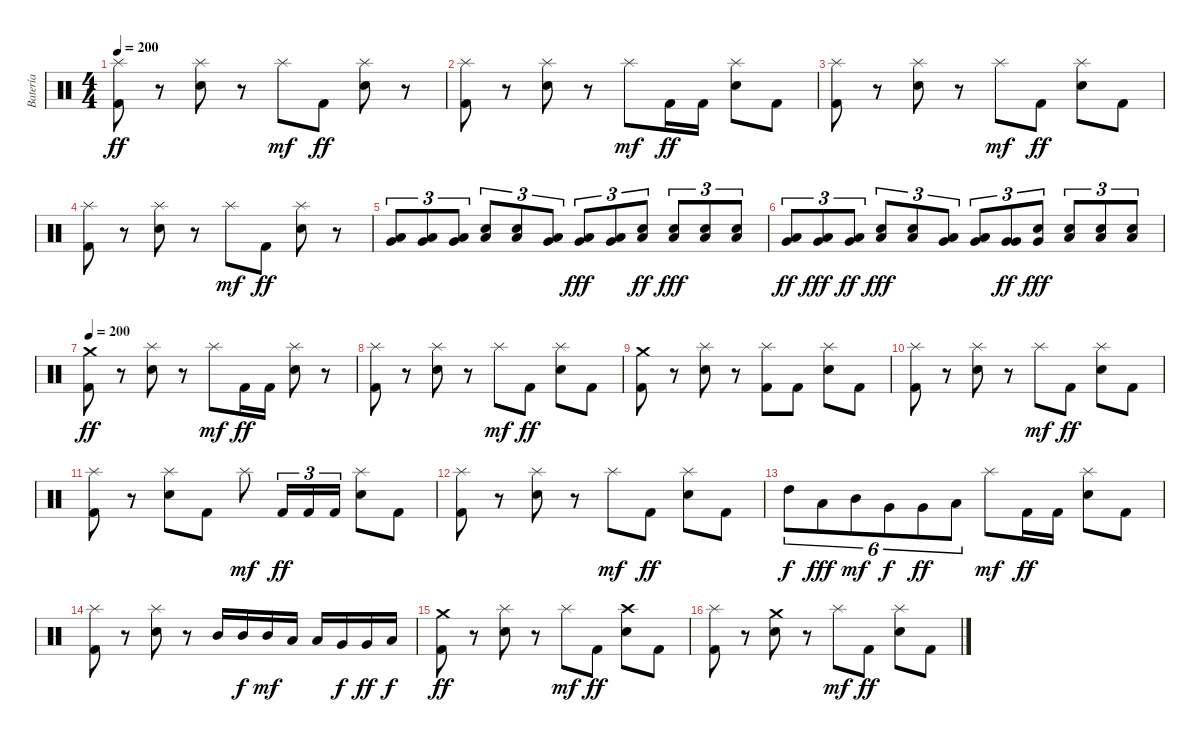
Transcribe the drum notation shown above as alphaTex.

\track ("Batería" "Batería") {instrument percussion}
\staff {score}
\articulation defaults
\ts (4 4)
\tempo 200
\clef neutral
\ks c
("Splash (hit)" "Kick (hit) 2").8{dy ff} r.8 ("Splash (hit)" "Electric Snare (hit)").8 r.8 "Splash (hit)".8{dy mf} "Kick (hit) 2".8{dy ff} ("Splash (hit)" "Electric Snare (hit)").8 r.8 |
("Splash (hit)" "Kick (hit) 2").8 r.8 ("Splash (hit)" "Electric Snare (hit)").8 r.8 "Splash (hit)".8{dy mf} "Kick (hit) 2".16{dy ff} "Kick (hit) 2".16 ("Splash (hit)" "Electric Snare (hit)").8 "Kick (hit) 2".8 |
("Splash (hit)" "Kick (hit) 2").8 r.8 ("Splash (hit)" "Electric Snare (hit)").8 r.8 "Splash (hit)".8{dy mf} "Kick (hit) 2".8{dy ff} ("Splash (hit)" "Electric Snare (hit)").8 "Kick (hit) 2".8 |
("Splash (hit)" "Kick (hit) 2").8 r.8 ("Splash (hit)" "Electric Snare (hit)").8 r.8 "Splash (hit)".8{dy mf} "Kick (hit) 2".8{dy ff} ("Splash (hit)" "Electric Snare (hit)").8 r.8 |
("Low Tom (hit)" "Very Low Tom (hit)").8{tu (3 2)} ("Low Tom (hit)" "Very Low Tom (hit)").8{tu (3 2)} ("Low Tom (hit)" "Very Low Tom (hit)").8{tu (3 2)} ("Low Tom (hit)" "Electric Snare (hit)").8{tu (3 2)} ("Low Tom (hit)" "Electric Snare (hit)").8{tu (3 2)} ("Low Tom (hit)" "Very Low Tom (hit)").8{tu (3 2)} ("Low Tom (hit)" "Very Low Tom (hit)").8{tu (3 2) dy fff} ("Low Tom (hit)" "Very Low Tom (hit)").8{tu (3 2)} ("Low Tom (hit)" "Electric Snare (hit)").8{tu (3 2) dy ff} ("Low Tom (hit)" "Electric Snare (hit)").8{tu (3 2) dy fff beam Up} ("Low Tom (hit)" "Electric Snare (hit)").8{tu (3 2) beam Up} ("Low Tom (hit)" "Electric Snare (hit)").8{tu (3 2) beam Up} |
("Low Tom (hit)" "Very Low Tom (hit)").8{tu (3 2) dy ff} ("Low Tom (hit)" "Very Low Tom (hit)").8{tu (3 2) dy fff} ("Low Tom (hit)" "Very Low Tom (hit)").8{tu (3 2) dy ff} ("Low Tom (hit)" "Electric Snare (hit)").8{tu (3 2) dy fff} ("Low Tom (hit)" "Electric Snare (hit)").8{tu (3 2)} ("Low Tom (hit)" "Very Low Tom (hit)").8{tu (3 2)} ("Low Tom (hit)" "Very Low Tom (hit)").8{tu (3 2)} ("Very Low Tom (hit)" "Very Low Tom (hit)").8{tu (3 2) dy ff} ("Very Low Tom (hit)" "Electric Snare (hit)").8{tu (3 2) dy fff} ("Low Floor Tom (hit)" "Electric Snare (hit)").8{tu (3 2) beam Up} ("Low Floor Tom (hit)" "Electric Snare (hit)").8{tu (3 2) beam Up} ("Low Floor Tom (hit)" "Electric Snare (hit)").8{tu (3 2) beam Up} |
\tempo 200
("Crash medium (hit)" "Kick (hit) 2").8{dy ff} r.8 ("Splash (hit)" "Electric Snare (hit)").8 r.8 "Splash (hit)".8{dy mf} "Kick (hit) 2".16{dy ff} "Kick (hit) 2".16 ("Splash (hit)" "Electric Snare (hit)").8 r.8 |
("Splash (hit)" "Kick (hit) 2").8 r.8 ("Splash (hit)" "Electric Snare (hit)").8 r.8 "Splash (hit)".8{dy mf} "Kick (hit) 2".8{dy ff} ("Splash (hit)" "Electric Snare (hit)").8 "Kick (hit) 2".8 |
("Crash medium (hit)" "Kick (hit) 2").8 r.8 ("Splash (hit)" "Electric Snare (hit)").8 r.8 ("Splash (hit)" "Kick (hit) 2").8 "Kick (hit) 2".8 ("Splash (hit)" "Electric Snare (hit)").8 "Kick (hit) 2".8 |
("Splash (hit)" "Kick (hit) 2").8 r.8 ("Splash (hit)" "Electric Snare (hit)").8 r.8 "Splash (hit)".8{dy mf} "Kick (hit) 2".8{dy ff} ("Splash (hit)" "Electric Snare (hit)").8 "Kick (hit) 2".8 |
("Splash (hit)" "Kick (hit) 2").8 r.8 ("Splash (hit)" "Electric Snare (hit)").8 "Kick (hit) 2".8 "Splash (hit)".8{dy mf} "Kick (hit) 2".16{tu (3 2) dy ff} "Kick (hit) 2".16{tu (3 2)} "Kick (hit) 2".16{tu (3 2)} ("Splash (hit)" "Electric Snare (hit)").8 "Kick (hit) 2".8 |
("Splash (hit)" "Kick (hit) 2").8 r.8 ("Splash (hit)" "Electric Snare (hit)").8 r.8 "Splash (hit)".8{dy mf} "Kick (hit) 2".8{dy ff} ("Splash (hit)" "Electric Snare (hit)").8 "Kick (hit) 2".8 |
"High Tom (hit)".8{tu (6 4) dy f} "Low Tom (hit)".8{tu (6 4) dy fff} "Mid Tom (hit)".8{tu (6 4) dy mf} "Very Low Tom (hit)".8{tu (6 4) dy f} "Very Low Tom (hit)".8{tu (6 4) dy ff} "Low Floor Tom (hit)".8{tu (6 4)} "Splash (hit)".8{dy mf} "Kick (hit) 2".16{dy ff} "Kick (hit) 2".16 ("Splash (hit)" "Electric Snare (hit)").8 "Kick (hit) 2".8 |
("Splash (hit)" "Kick (hit) 2").8 r.8 ("Splash (hit)" "Electric Snare (hit)").8 r.8 "Mid Tom (hit)".16 "Mid Tom (hit)".16{dy f} "Mid Tom (hit)".16{dy mf} "Low Tom (hit)".16 "Low Tom (hit)".16 "Very Low Tom (hit)".16{dy f} "Very Low Tom (hit)".16{dy ff} "Low Floor Tom (hit)".16{dy f} |
("Crash medium (hit)" "Kick (hit) 2").8{dy ff} r.8 ("Splash (hit)" "Electric Snare (hit)").8 r.8 "Splash (hit)".8{dy mf} "Kick (hit) 2".8{dy ff} ("Crash high (hit)" "Electric Snare (hit)").8 "Kick (hit) 2".8 |
("Splash (hit)" "Kick (hit) 2").8 r.8 ("Crash medium (hit)" "Electric Snare (hit)").8 r.8 "Splash (hit)".8{dy mf} "Kick (hit) 2".8{dy ff} ("Splash (hit)" "Electric Snare (hit)").8 "Kick (hit) 2".8
